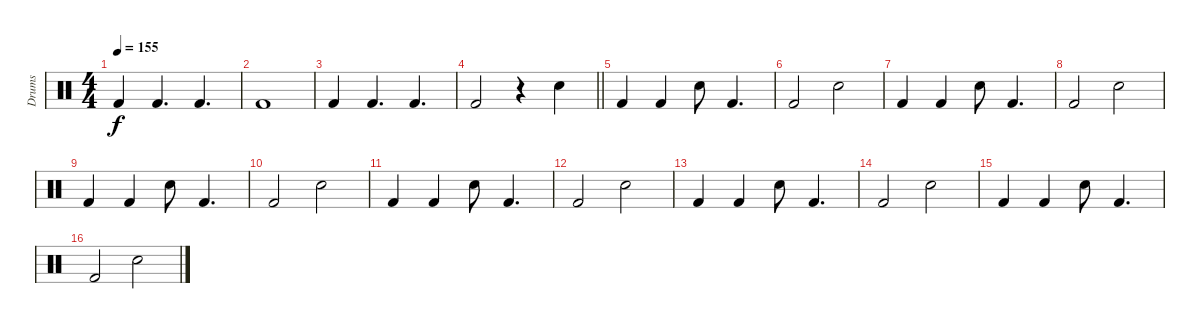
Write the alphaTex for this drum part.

\track ("Drums" "Drums") {instrument percussion}
\staff {score}
\articulation defaults
\ts (4 4)
\tempo 155
\clef neutral
\ks c "Kick (hit) 2".4{dy f} "Kick (hit) 2".4{d} "Kick (hit) 2".4{d}
|
"Kick (hit) 2".1 |
"Kick (hit) 2".4 "Kick (hit) 2".4{d} "Kick (hit) 2".4{d} |
\barLineRight lightlight "Kick (hit) 2".2
r.4 "Snare (hit) 2".4 |
\section ("" "")
"Kick (hit) 2".4 "Kick (hit) 2".4 "Snare (hit) 2".8 "Kick (hit) 2".4{d} |
"Kick (hit) 2".2 "Snare (hit) 2".2 |
"Kick (hit) 2".4 "Kick (hit) 2".4 "Snare (hit) 2".8 "Kick (hit) 2".4{d} |
"Kick (hit) 2".2 "Snare (hit) 2".2 |
"Kick (hit) 2".4 "Kick (hit) 2".4 "Snare (hit) 2".8 "Kick (hit) 2".4{d} |
"Kick (hit) 2".2 "Snare (hit) 2".2 |
"Kick (hit) 2".4 "Kick (hit) 2".4 "Snare (hit) 2".8 "Kick (hit) 2".4{d} |
"Kick (hit) 2".2 "Snare (hit) 2".2 |
"Kick (hit) 2".4 "Kick (hit) 2".4 "Snare (hit) 2".8 "Kick (hit) 2".4{d} |
"Kick (hit) 2".2 "Snare (hit) 2".2 |
"Kick (hit) 2".4 "Kick (hit) 2".4 "Snare (hit) 2".8 "Kick (hit) 2".4{d} |
"Kick (hit) 2".2 "Snare (hit) 2".2
